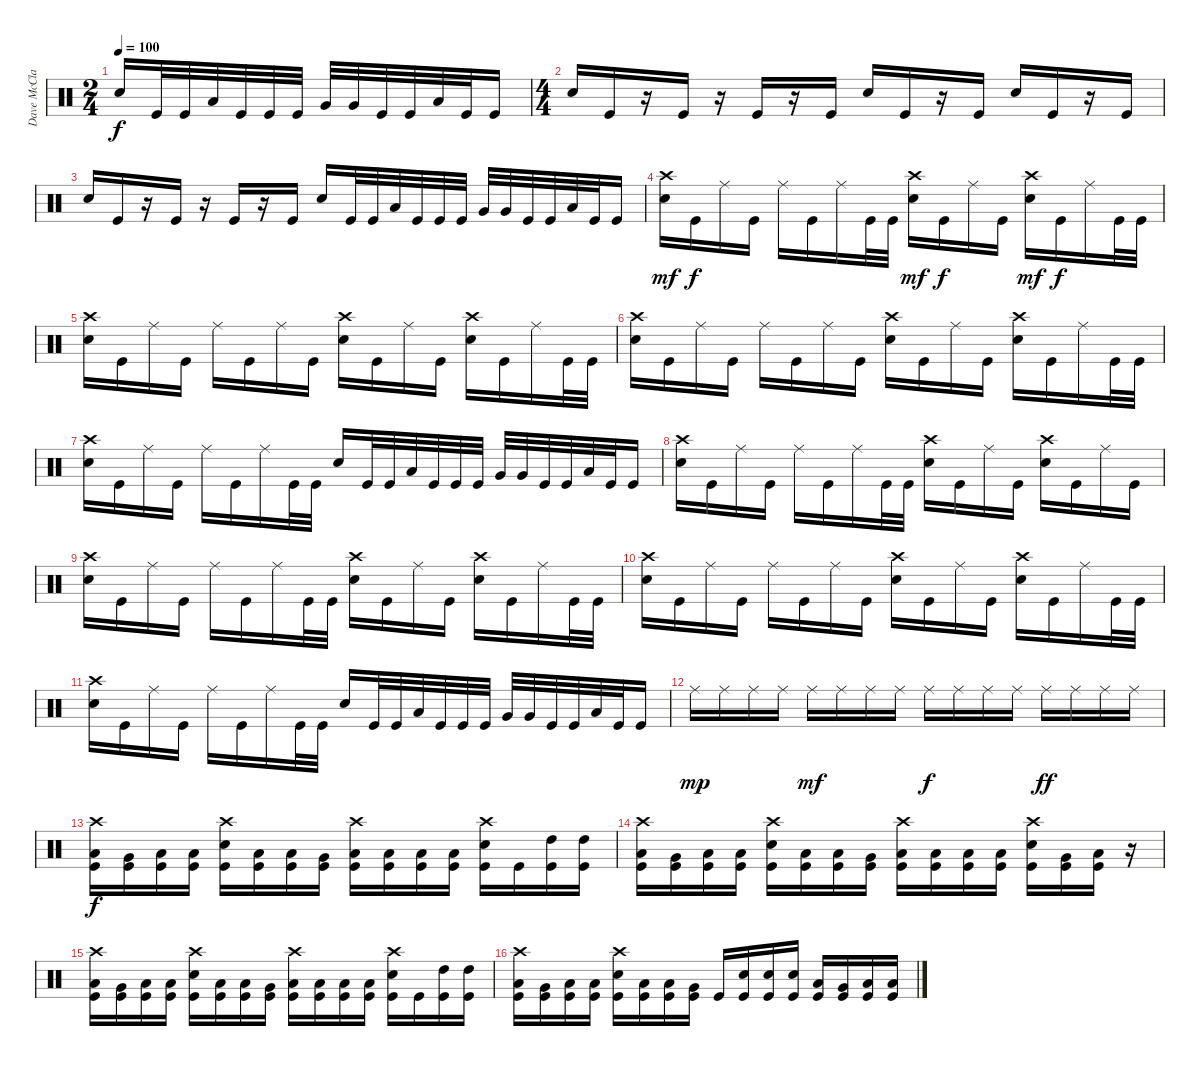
\track ("Dave McClain" "Dave McCla") {instrument percussion}
\staff {score}
\articulation defaults
\ts (2 4)
\tempo 100
\clef neutral
\ks c "Snare (hit) 2".16{dy f} "Kick (hit)".32 "Kick (hit)".32 "Low Tom (hit)".32 "Kick (hit)".32 "Kick (hit)".32 "Kick (hit)".32 "Very Low Tom (hit)".32 "Very Low Tom (hit)".32 "Kick (hit)".32 "Kick (hit)".32 "Low Floor Tom (hit)".32 "Kick (hit)".32 "Kick (hit)".16
|
\ts (4 4)
"Snare (hit) 2".16 "Kick (hit)".16 r.16 "Kick (hit)".16 r.16 "Kick (hit)".16 r.16 "Kick (hit)".16 "Snare (hit) 2".16 "Kick (hit)".16 r.16 "Kick (hit)".16 "Snare (hit) 2".16 "Kick (hit)".16 r.16 "Kick (hit)".16 |
"Snare (hit) 2".16 "Kick (hit)".16 r.16 "Kick (hit)".16 r.16 "Kick (hit)".16 r.16 "Kick (hit)".16 "Snare (hit) 2".16 "Kick (hit)".32 "Kick (hit)".32 "Low Tom (hit)".32 "Kick (hit)".32 "Kick (hit)".32 "Kick (hit)".32 "Very Low Tom (hit)".32 "Very Low Tom (hit)".32 "Kick (hit)".32 "Kick (hit)".32 "Low Floor Tom (hit)".32 "Kick (hit)".32 "Kick (hit)".16 |
("Crash high (hit)" "Snare (hit) 2").16{dy mf} "Kick (hit)".16{dy f} "Ride (middle)".16 "Kick (hit)".16 "Ride (middle)".16 "Kick (hit)".16 "Ride (middle)".16 "Kick (hit)".32 "Kick (hit)".32 ("Crash high (hit)" "Snare (hit) 2").16{dy mf} "Kick (hit)".16{dy f} "Ride (middle)".16 "Kick (hit)".16 ("Crash high (hit)" "Snare (hit) 2").16{dy mf} "Kick (hit)".16{dy f} "Ride (middle)".16 "Kick (hit)".32 "Kick (hit)".32 |
("Crash high (hit)" "Snare (hit) 2").16 "Kick (hit)".16 "Ride (middle)".16 "Kick (hit)".16 "Ride (middle)".16 "Kick (hit)".16 "Ride (middle)".16 "Kick (hit)".16 ("Crash high (hit)" "Snare (hit) 2").16 "Kick (hit)".16 "Ride (middle)".16 "Kick (hit)".16 ("Crash high (hit)" "Snare (hit) 2").16 "Kick (hit)".16 "Ride (middle)".16 "Kick (hit)".32 "Kick (hit)".32 |
("Crash high (hit)" "Snare (hit) 2").16 "Kick (hit)".16 "Ride (middle)".16 "Kick (hit)".16 "Ride (middle)".16 "Kick (hit)".16 "Ride (middle)".16 "Kick (hit)".16 ("Crash high (hit)" "Snare (hit) 2").16 "Kick (hit)".16 "Ride (middle)".16 "Kick (hit)".16 ("Crash high (hit)" "Snare (hit) 2").16 "Kick (hit)".16 "Ride (middle)".16 "Kick (hit)".32 "Kick (hit)".32 |
("Crash high (hit)" "Snare (hit) 2").16 "Kick (hit)".16 "Ride (middle)".16 "Kick (hit)".16 "Ride (middle)".16 "Kick (hit)".16 "Ride (middle)".16 "Kick (hit)".32 "Kick (hit)".32 "Snare (hit) 2".16 "Kick (hit)".32 "Kick (hit)".32 "Low Tom (hit)".32 "Kick (hit)".32 "Kick (hit)".32 "Kick (hit)".32 "Very Low Tom (hit)".32 "Very Low Tom (hit)".32 "Kick (hit)".32 "Kick (hit)".32 "Low Floor Tom (hit)".32 "Kick (hit)".32 "Kick (hit)".16 |
("Crash high (hit)" "Snare (hit) 2").16 "Kick (hit)".16 "Ride (middle)".16 "Kick (hit)".16 "Ride (middle)".16 "Kick (hit)".16 "Ride (middle)".16 "Kick (hit)".32 "Kick (hit)".32 ("Crash high (hit)" "Snare (hit) 2").16 "Kick (hit)".16 "Ride (middle)".16 "Kick (hit)".16 ("Crash high (hit)" "Snare (hit) 2").16 "Kick (hit)".16 "Ride (middle)".16 "Kick (hit)".16 |
("Crash high (hit)" "Snare (hit) 2").16 "Kick (hit)".16 "Ride (middle)".16 "Kick (hit)".16 "Ride (middle)".16 "Kick (hit)".16 "Ride (middle)".16 "Kick (hit)".32 "Kick (hit)".32 ("Crash high (hit)" "Snare (hit) 2").16 "Kick (hit)".16 "Ride (middle)".16 "Kick (hit)".16 ("Crash high (hit)" "Snare (hit) 2").16 "Kick (hit)".16 "Ride (middle)".16 "Kick (hit)".32 "Kick (hit)".32 |
("Crash high (hit)" "Snare (hit) 2").16 "Kick (hit)".16 "Ride (middle)".16 "Kick (hit)".16 "Ride (middle)".16 "Kick (hit)".16 "Ride (middle)".16 "Kick (hit)".16 ("Crash high (hit)" "Snare (hit) 2").16 "Kick (hit)".16 "Ride (middle)".16 "Kick (hit)".16 ("Crash high (hit)" "Snare (hit) 2").16 "Kick (hit)".16 "Ride (middle)".16 "Kick (hit)".32 "Kick (hit)".32 |
("Crash high (hit)" "Snare (hit) 2").16 "Kick (hit)".16 "Ride (middle)".16 "Kick (hit)".16 "Ride (middle)".16 "Kick (hit)".16 "Ride (middle)".16 "Kick (hit)".32 "Kick (hit)".32 "Snare (hit) 2".16 "Kick (hit)".32 "Kick (hit)".32 "Low Tom (hit)".32 "Kick (hit)".32 "Kick (hit)".32 "Kick (hit)".32 "Very Low Tom (hit)".32 "Very Low Tom (hit)".32 "Kick (hit)".32 "Kick (hit)".32 "Low Floor Tom (hit)".32 "Kick (hit)".32 "Kick (hit)".16 |
"Ride (middle)".16{dy mp} "Ride (middle)".16 "Ride (middle)".16 "Ride (middle)".16 "Ride (middle)".16{dy mf} "Ride (middle)".16 "Ride (middle)".16 "Ride (middle)".16 "Ride (middle)".16{dy f} "Ride (middle)".16 "Ride (middle)".16 "Ride (middle)".16 "Ride (middle)".16{dy ff} "Ride (middle)".16 "Ride (middle)".16 "Ride (middle)".16 |
("Crash high (hit)" "Low Tom (hit)" "Kick (hit)").16{dy f} ("Very Low Tom (hit)" "Kick (hit)").16 ("Low Floor Tom (hit)" "Kick (hit)").16 ("Low Floor Tom (hit)" "Kick (hit)").16 ("Crash high (hit)" "Snare (hit) 2" "Kick (hit)").16 ("Low Floor Tom (hit)" "Kick (hit)").16 ("Low Tom (hit)" "Kick (hit)").16 ("Very Low Tom (hit)" "Kick (hit)").16 ("Crash high (hit)" "Low Floor Tom (hit)" "Kick (hit)").16 ("Low Floor Tom (hit)" "Kick (hit)").16 ("Low Floor Tom (hit)" "Kick (hit)").16 ("Low Floor Tom (hit)" "Kick (hit)").16 ("Crash high (hit)" "Snare (hit) 2" "Kick (hit)").16 "Kick (hit)".16 ("High Tom (hit)" "Kick (hit)").16 ("High Tom (hit)" "Kick (hit)").16 |
("Crash high (hit)" "Low Tom (hit)" "Kick (hit)").16 ("Very Low Tom (hit)" "Kick (hit)").16 ("Low Floor Tom (hit)" "Kick (hit)").16 ("Low Floor Tom (hit)" "Kick (hit)").16 ("Crash high (hit)" "Snare (hit) 2" "Kick (hit)").16 ("Low Floor Tom (hit)" "Kick (hit)").16 ("Low Tom (hit)" "Kick (hit)").16 ("Very Low Tom (hit)" "Kick (hit)").16 ("Crash high (hit)" "Low Floor Tom (hit)" "Kick (hit)").16 ("Low Floor Tom (hit)" "Kick (hit)").16 ("Low Floor Tom (hit)" "Kick (hit)").16 ("Low Floor Tom (hit)" "Kick (hit)").16 ("Crash high (hit)" "Snare (hit) 2" "Kick (hit)").16 ("Very Low Tom (hit)" "Kick (hit)").16 ("Low Floor Tom (hit)" "Kick (hit)").16 r.16 |
("Crash high (hit)" "Low Tom (hit)" "Kick (hit)").16 ("Very Low Tom (hit)" "Kick (hit)").16 ("Low Floor Tom (hit)" "Kick (hit)").16 ("Low Floor Tom (hit)" "Kick (hit)").16 ("Crash high (hit)" "Snare (hit) 2" "Kick (hit)").16 ("Low Floor Tom (hit)" "Kick (hit)").16 ("Low Tom (hit)" "Kick (hit)").16 ("Very Low Tom (hit)" "Kick (hit)").16 ("Crash high (hit)" "Low Floor Tom (hit)" "Kick (hit)").16 ("Low Floor Tom (hit)" "Kick (hit)").16 ("Low Floor Tom (hit)" "Kick (hit)").16 ("Low Floor Tom (hit)" "Kick (hit)").16 ("Crash high (hit)" "Snare (hit) 2" "Kick (hit)").16 "Kick (hit)".16 ("High Tom (hit)" "Kick (hit)").16 ("High Tom (hit)" "Kick (hit)").16 |
("Crash high (hit)" "Low Tom (hit)" "Kick (hit)").16 ("Very Low Tom (hit)" "Kick (hit)").16 ("Low Floor Tom (hit)" "Kick (hit)").16 ("Low Floor Tom (hit)" "Kick (hit)").16 ("Crash high (hit)" "Snare (hit) 2" "Kick (hit)").16 ("Low Floor Tom (hit)" "Kick (hit)").16 ("Low Tom (hit)" "Kick (hit)").16 ("Very Low Tom (hit)" "Kick (hit)").16 "Kick (hit)".16 ("Snare (hit) 2" "Kick (hit)").16 ("Snare (hit) 2" "Kick (hit)").16 ("Snare (hit) 2" "Kick (hit)").16 ("Low Tom (hit)" "Kick (hit)").16 ("Very Low Tom (hit)" "Kick (hit)").16 ("Low Floor Tom (hit)" "Kick (hit)").16 ("Low Floor Tom (hit)" "Kick (hit)").16
